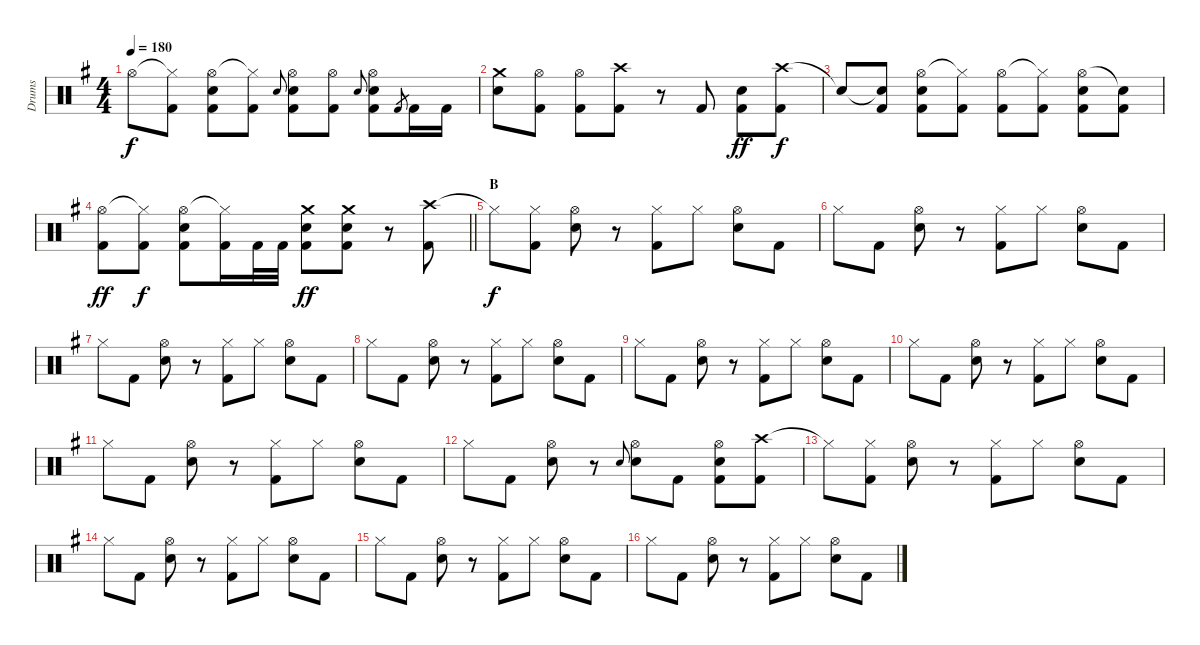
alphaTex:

\track ("Drums" "Drums") {instrument percussion}
\staff {score}
\articulation defaults
\ts (4 4)
\tempo 180
\clef neutral
\ks g "Hi-Hat (open)".8{dy f}
("Hi-Hat (closed)"{t} "Kick (hit) 2").8 ("Hi-Hat (open)" "Snare (hit) 2" "Kick (hit) 2").8 ("Hi-Hat (closed)"{t} "Kick (hit) 2").8 "Snare (hit) 2".8{gr onbeat} ("Hi-Hat (open)" "Snare (hit) 2" "Kick (hit) 2").8 ("Hi-Hat (open)" "Kick (hit) 2").8 "Snare (hit) 2".8{gr onbeat} ("Hi-Hat (open)" "Snare (hit) 2" "Kick (hit) 2").8 "Kick (hit) 2".8{gr} "Kick (hit) 2".16 "Kick (hit) 2".16 |
("Crash medium (hit)" "Snare (hit) 2").8 ("Hi-Hat (open)" "Kick (hit) 2").8 ("Hi-Hat (open)" "Kick (hit) 2").8 ("Crash high (hit)" "Kick (hit) 2").8 r.8 "Kick (hit) 2".8 ("Snare (hit) 2" "Kick (hit) 2").8{dy ff} ("Crash high (hit)" "Kick (hit) 2").8{dy f} |
"Snare (hit)"{t}.8 ("Snare (hit)"{t} "Kick (hit) 2").8 ("Hi-Hat (open)" "Snare (hit) 2" "Kick (hit) 2").8 ("Hi-Hat (closed)"{t} "Kick (hit) 2").8 ("Hi-Hat (open)" "Kick (hit) 2").8 ("Hi-Hat (closed)"{t} "Kick (hit) 2").8 ("Hi-Hat (open)" "Snare (hit) 2" "Kick (hit) 2").8 ("Snare (hit)"{t} "Kick (hit) 2").8 |
\barLineRight lightlight
("Hi-Hat (open)" "Kick (hit) 2").8{dy ff} ("Hi-Hat (closed)"{t} "Kick (hit) 2").8{dy f} ("Hi-Hat (open)" "Snare (hit) 2" "Kick (hit) 2").8 ("Hi-Hat (closed)"{t} "Kick (hit) 2").16 "Kick (hit) 2".32 "Kick (hit) 2".32 ("Crash medium (hit)" "Snare (hit) 2" "Kick (hit) 2").8{dy ff} ("Crash medium (hit)" "Snare (hit) 2" "Kick (hit) 2").8 r.8 ("Crash high (hit)" "Kick (hit) 2").8 |
\section ("" "B")
"Hi-Hat (closed)"{t}.8{dy f} ("Hi-Hat (closed)" "Kick (hit) 2").8 ("Hi-Hat (open)" "Snare (hit) 2").8 r.8 ("Hi-Hat (closed)" "Kick (hit) 2").8 "Hi-Hat (closed)".8 ("Hi-Hat (open)" "Snare (hit) 2").8 "Kick (hit) 2".8 |
"Hi-Hat (closed)".8 "Kick (hit) 2".8 ("Hi-Hat (open)" "Snare (hit) 2").8 r.8 ("Hi-Hat (closed)" "Kick (hit) 2").8 "Hi-Hat (closed)".8 ("Hi-Hat (open)" "Snare (hit) 2").8 "Kick (hit) 2".8 |
"Hi-Hat (closed)".8 "Kick (hit) 2".8 ("Hi-Hat (open)" "Snare (hit) 2").8 r.8 ("Hi-Hat (closed)" "Kick (hit) 2").8 "Hi-Hat (closed)".8 ("Hi-Hat (open)" "Snare (hit) 2").8 "Kick (hit) 2".8 |
"Hi-Hat (closed)".8 "Kick (hit) 2".8 ("Hi-Hat (open)" "Snare (hit) 2").8 r.8 ("Hi-Hat (closed)" "Kick (hit) 2").8 "Hi-Hat (closed)".8 ("Hi-Hat (open)" "Snare (hit) 2").8 "Kick (hit) 2".8 |
"Hi-Hat (closed)".8 "Kick (hit) 2".8 ("Hi-Hat (open)" "Snare (hit) 2").8 r.8 ("Hi-Hat (closed)" "Kick (hit) 2").8 "Hi-Hat (closed)".8 ("Hi-Hat (open)" "Snare (hit) 2").8 "Kick (hit) 2".8 |
"Hi-Hat (closed)".8 "Kick (hit) 2".8 ("Hi-Hat (open)" "Snare (hit) 2").8 r.8 ("Hi-Hat (closed)" "Kick (hit) 2").8 "Hi-Hat (closed)".8 ("Hi-Hat (open)" "Snare (hit) 2").8 "Kick (hit) 2".8 |
"Hi-Hat (closed)".8 "Kick (hit) 2".8 ("Hi-Hat (open)" "Snare (hit) 2").8 r.8 ("Hi-Hat (closed)" "Kick (hit) 2").8 "Hi-Hat (closed)".8 ("Hi-Hat (open)" "Snare (hit) 2").8 "Kick (hit) 2".8 |
"Hi-Hat (closed)".8 "Kick (hit) 2".8 ("Hi-Hat (open)" "Snare (hit) 2").8 r.8 "Snare (hit) 2".8{gr onbeat} ("Hi-Hat (open)" "Snare (hit) 2").8 "Kick (hit) 2".8 ("Hi-Hat (open)" "Snare (hit) 2" "Kick (hit) 2").8 ("Crash high (hit)" "Kick (hit) 2").8 |
"Hi-Hat (closed)"{t}.8 ("Hi-Hat (closed)" "Kick (hit) 2").8 ("Hi-Hat (open)" "Snare (hit) 2").8 r.8 ("Hi-Hat (closed)" "Kick (hit) 2").8 "Hi-Hat (closed)".8 ("Hi-Hat (open)" "Snare (hit) 2").8 "Kick (hit) 2".8 |
"Hi-Hat (closed)".8 "Kick (hit) 2".8 ("Hi-Hat (open)" "Snare (hit) 2").8 r.8 ("Hi-Hat (closed)" "Kick (hit) 2").8 "Hi-Hat (closed)".8 ("Hi-Hat (open)" "Snare (hit) 2").8 "Kick (hit) 2".8 |
"Hi-Hat (closed)".8 "Kick (hit) 2".8 ("Hi-Hat (open)" "Snare (hit) 2").8 r.8 ("Hi-Hat (closed)" "Kick (hit) 2").8 "Hi-Hat (closed)".8 ("Hi-Hat (open)" "Snare (hit) 2").8 "Kick (hit) 2".8 |
"Hi-Hat (closed)".8 "Kick (hit) 2".8 ("Hi-Hat (open)" "Snare (hit) 2").8 r.8 ("Hi-Hat (closed)" "Kick (hit) 2").8 "Hi-Hat (closed)".8 ("Hi-Hat (open)" "Snare (hit) 2").8 "Kick (hit) 2".8
